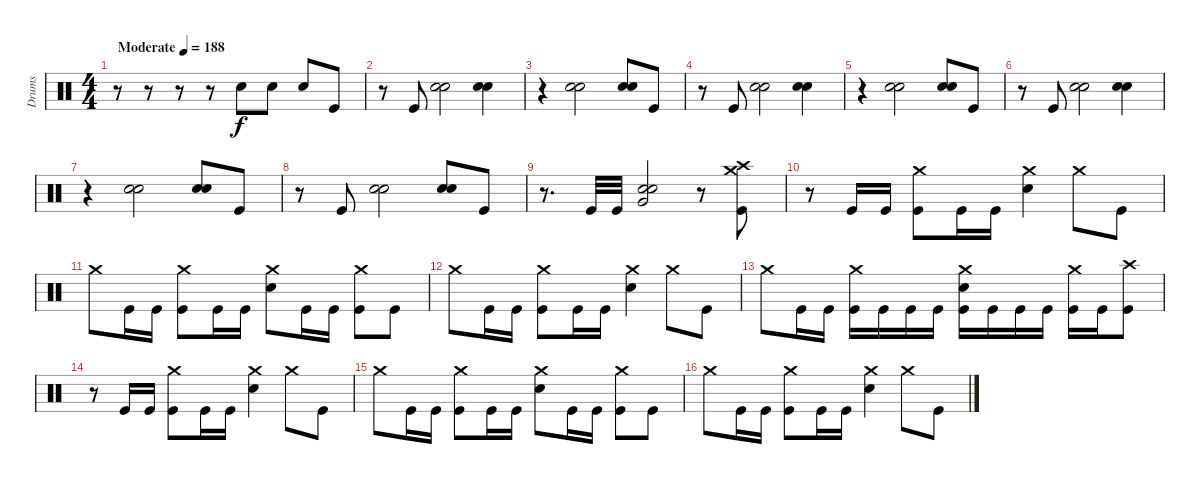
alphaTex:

\track ("Drums" "Drums") {instrument percussion}
\staff {score}
\articulation defaults
\ts (4 4)
\tempo (188 "Moderate")
\clef neutral
\ks c
r.8{dy f} r.8 r.8 r.8 "Electric Snare (hit)".8 "Electric Snare (hit)".8 "Electric Snare (hit)".8 "Kick (hit)".8 |
r.8 "Kick (hit)".8 ("Hand Clap (hit)" "Electric Snare (hit)").2 ("Hand Clap (hit)" "Electric Snare (hit)").4 |
r.4 ("Hand Clap (hit)" "Electric Snare (hit)").2 ("Hand Clap (hit)" "Electric Snare (hit)").8 "Kick (hit)".8 |
r.8 "Kick (hit)".8 ("Hand Clap (hit)" "Electric Snare (hit)").2 ("Hand Clap (hit)" "Electric Snare (hit)").4 |
r.4 ("Hand Clap (hit)" "Electric Snare (hit)").2 ("Hand Clap (hit)" "Electric Snare (hit)").8 "Kick (hit)".8 |
r.8 "Kick (hit)".8 ("Hand Clap (hit)" "Electric Snare (hit)").2 ("Hand Clap (hit)" "Electric Snare (hit)").4 |
r.4 ("Hand Clap (hit)" "Electric Snare (hit)").2 ("Hand Clap (hit)" "Electric Snare (hit)").8 "Kick (hit)".8 |
r.8 "Kick (hit)".8 ("Hand Clap (hit)" "Electric Snare (hit)").2 ("Hand Clap (hit)" "Electric Snare (hit)").8 "Kick (hit)".8 |
r.8{d} "Kick (hit)".32 "Kick (hit)".32 ("Hand Clap (hit)" "Very Low Tom (hit)" "Electric Snare (hit)").2 r.8 ("Crash medium (hit)" "Crash high (hit)" "Kick (hit)").8 |
r.8 "Kick (hit)".16 "Kick (hit)".16 ("Crash medium (hit)" "Kick (hit)").8 "Kick (hit)".16 "Kick (hit)".16 ("Crash medium (hit)" "Electric Snare (hit)").4 "Crash medium (hit)".8 "Kick (hit)".8 |
"Crash medium (hit)".8 "Kick (hit)".16 "Kick (hit)".16 ("Crash medium (hit)" "Kick (hit)").8 "Kick (hit)".16 "Kick (hit)".16 ("Crash medium (hit)" "Electric Snare (hit)").8 "Kick (hit)".16 "Kick (hit)".16 ("Crash medium (hit)" "Kick (hit)").8 "Kick (hit)".8 |
"Crash medium (hit)".8 "Kick (hit)".16 "Kick (hit)".16 ("Crash medium (hit)" "Kick (hit)").8 "Kick (hit)".16 "Kick (hit)".16 ("Crash medium (hit)" "Electric Snare (hit)").4 "Crash medium (hit)".8 "Kick (hit)".8 |
"Crash medium (hit)".8 "Kick (hit)".16 "Kick (hit)".16 ("Crash medium (hit)" "Kick (hit)").16 "Kick (hit)".16 "Kick (hit)".16 "Kick (hit)".16 ("Crash medium (hit)" "Electric Snare (hit)" "Kick (hit)").16 "Kick (hit)".16 "Kick (hit)".16 "Kick (hit)".16 ("Crash medium (hit)" "Kick (hit)").16 "Kick (hit)".16 ("Crash high (hit)" "Kick (hit)").8 |
r.8 "Kick (hit)".16 "Kick (hit)".16 ("Crash medium (hit)" "Kick (hit)").8 "Kick (hit)".16 "Kick (hit)".16 ("Crash medium (hit)" "Electric Snare (hit)").4 "Crash medium (hit)".8 "Kick (hit)".8 |
"Crash medium (hit)".8 "Kick (hit)".16 "Kick (hit)".16 ("Crash medium (hit)" "Kick (hit)").8 "Kick (hit)".16 "Kick (hit)".16 ("Crash medium (hit)" "Electric Snare (hit)").8 "Kick (hit)".16 "Kick (hit)".16 ("Crash medium (hit)" "Kick (hit)").8 "Kick (hit)".8 |
"Crash medium (hit)".8 "Kick (hit)".16 "Kick (hit)".16 ("Crash medium (hit)" "Kick (hit)").8 "Kick (hit)".16 "Kick (hit)".16 ("Crash medium (hit)" "Electric Snare (hit)").4 "Crash medium (hit)".8 "Kick (hit)".8
